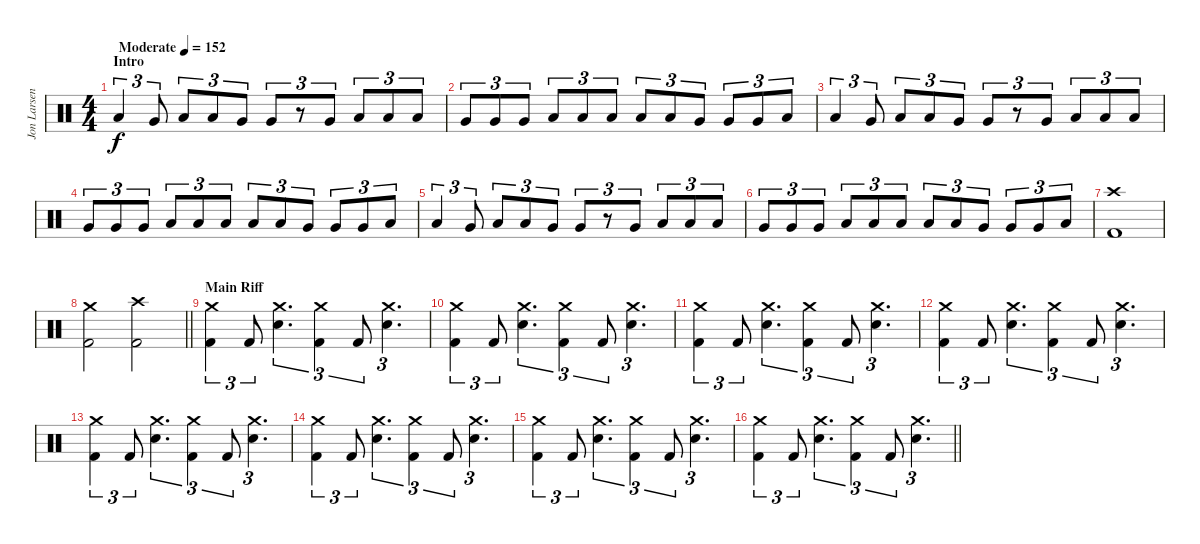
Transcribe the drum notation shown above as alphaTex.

\track ("Jon Larsen" "Jon Larsen") {instrument percussion}
\staff {score}
\articulation defaults
\ts (4 4)
\section ("" "Intro")
\tempo (152 "Moderate")
\clef neutral
\ks c "Low Tom (hit)".4{tu (3 2) dy f} "Very Low Tom (hit)".8{tu (3 2)} "Low Tom (hit)".8{tu (3 2)} "Low Tom (hit)".8{tu (3 2)} "Very Low Tom (hit)".8{tu (3 2)} "Very Low Tom (hit)".8{tu (3 2)}
r.8{tu (3 2)} "Very Low Tom (hit)".8{tu (3 2)} "Low Floor Tom (hit)".8{tu (3 2)} "Low Floor Tom (hit)".8{tu (3 2)} "Low Floor Tom (hit)".8{tu (3 2)} |
"Very Low Tom (hit)".8{tu (3 2)} "Very Low Tom (hit)".8{tu (3 2)} "Very Low Tom (hit)".8{tu (3 2)} "Low Floor Tom (hit)".8{tu (3 2)} "Low Floor Tom (hit)".8{tu (3 2)} "Low Floor Tom (hit)".8{tu (3 2)} "Low Tom (hit)".8{tu (3 2)} "Low Tom (hit)".8{tu (3 2)} "Very Low Tom (hit)".8{tu (3 2)} "Very Low Tom (hit)".8{tu (3 2)} "Very Low Tom (hit)".8{tu (3 2)} "Low Tom (hit)".8{tu (3 2)} |
"Low Tom (hit)".4{tu (3 2)} "Very Low Tom (hit)".8{tu (3 2)} "Low Tom (hit)".8{tu (3 2)} "Low Tom (hit)".8{tu (3 2)} "Very Low Tom (hit)".8{tu (3 2)} "Very Low Tom (hit)".8{tu (3 2)} r.8{tu (3 2)} "Very Low Tom (hit)".8{tu (3 2)} "Low Floor Tom (hit)".8{tu (3 2)} "Low Floor Tom (hit)".8{tu (3 2)} "Low Floor Tom (hit)".8{tu (3 2)} |
"Very Low Tom (hit)".8{tu (3 2)} "Very Low Tom (hit)".8{tu (3 2)} "Very Low Tom (hit)".8{tu (3 2)} "Low Floor Tom (hit)".8{tu (3 2)} "Low Floor Tom (hit)".8{tu (3 2)} "Low Floor Tom (hit)".8{tu (3 2)} "Low Tom (hit)".8{tu (3 2)} "Low Tom (hit)".8{tu (3 2)} "Very Low Tom (hit)".8{tu (3 2)} "Very Low Tom (hit)".8{tu (3 2)} "Very Low Tom (hit)".8{tu (3 2)} "Low Tom (hit)".8{tu (3 2)} |
"Low Tom (hit)".4{tu (3 2)} "Very Low Tom (hit)".8{tu (3 2)} "Low Tom (hit)".8{tu (3 2)} "Low Tom (hit)".8{tu (3 2)} "Very Low Tom (hit)".8{tu (3 2)} "Very Low Tom (hit)".8{tu (3 2)} r.8{tu (3 2)} "Very Low Tom (hit)".8{tu (3 2)} "Low Floor Tom (hit)".8{tu (3 2)} "Low Floor Tom (hit)".8{tu (3 2)} "Low Floor Tom (hit)".8{tu (3 2)} |
"Very Low Tom (hit)".8{tu (3 2)} "Very Low Tom (hit)".8{tu (3 2)} "Very Low Tom (hit)".8{tu (3 2)} "Low Floor Tom (hit)".8{tu (3 2)} "Low Floor Tom (hit)".8{tu (3 2)} "Low Floor Tom (hit)".8{tu (3 2)} "Low Tom (hit)".8{tu (3 2)} "Low Tom (hit)".8{tu (3 2)} "Very Low Tom (hit)".8{tu (3 2)} "Very Low Tom (hit)".8{tu (3 2)} "Very Low Tom (hit)".8{tu (3 2)} "Low Tom (hit)".8{tu (3 2)} |
("Kick (hit) 2" "Crash high (hit)").1 |
\barLineRight lightlight
("Kick (hit) 2" "Crash medium (hit)").2 ("Kick (hit) 2" "Crash high (hit)").2 |
\section ("" "Main Riff")
("Kick (hit) 2" "Crash medium (hit)").4{tu (3 2)} "Kick (hit) 2".8{tu (3 2)} ("Electric Snare (hit)" "Crash medium (hit)").4{d tu (3 2)} ("Kick (hit) 2" "Crash medium (hit)").4{tu (3 2)} "Kick (hit) 2".8{tu (3 2)} ("Electric Snare (hit)" "Crash medium (hit)").4{d tu (3 2)} |
("Kick (hit) 2" "Crash medium (hit)").4{tu (3 2)} "Kick (hit) 2".8{tu (3 2)} ("Electric Snare (hit)" "Crash medium (hit)").4{d tu (3 2)} ("Kick (hit) 2" "Crash medium (hit)").4{tu (3 2)} "Kick (hit) 2".8{tu (3 2)} ("Electric Snare (hit)" "Crash medium (hit)").4{d tu (3 2)} |
("Kick (hit) 2" "Crash medium (hit)").4{tu (3 2)} "Kick (hit) 2".8{tu (3 2)} ("Electric Snare (hit)" "Crash medium (hit)").4{d tu (3 2)} ("Kick (hit) 2" "Crash medium (hit)").4{tu (3 2)} "Kick (hit) 2".8{tu (3 2)} ("Electric Snare (hit)" "Crash medium (hit)").4{d tu (3 2)} |
("Kick (hit) 2" "Crash medium (hit)").4{tu (3 2)} "Kick (hit) 2".8{tu (3 2)} ("Electric Snare (hit)" "Crash medium (hit)").4{d tu (3 2)} ("Kick (hit) 2" "Crash medium (hit)").4{tu (3 2)} "Kick (hit) 2".8{tu (3 2)} ("Electric Snare (hit)" "Crash medium (hit)").4{d tu (3 2)} |
("Kick (hit) 2" "Crash medium (hit)").4{tu (3 2)} "Kick (hit) 2".8{tu (3 2)} ("Electric Snare (hit)" "Crash medium (hit)").4{d tu (3 2)} ("Kick (hit) 2" "Crash medium (hit)").4{tu (3 2)} "Kick (hit) 2".8{tu (3 2)} ("Electric Snare (hit)" "Crash medium (hit)").4{d tu (3 2)} |
("Kick (hit) 2" "Crash medium (hit)").4{tu (3 2)} "Kick (hit) 2".8{tu (3 2)} ("Electric Snare (hit)" "Crash medium (hit)").4{d tu (3 2)} ("Kick (hit) 2" "Crash medium (hit)").4{tu (3 2)} "Kick (hit) 2".8{tu (3 2)} ("Electric Snare (hit)" "Crash medium (hit)").4{d tu (3 2)} |
("Kick (hit) 2" "Crash medium (hit)").4{tu (3 2)} "Kick (hit) 2".8{tu (3 2)} ("Electric Snare (hit)" "Crash medium (hit)").4{d tu (3 2)} ("Kick (hit) 2" "Crash medium (hit)").4{tu (3 2)} "Kick (hit) 2".8{tu (3 2)} ("Electric Snare (hit)" "Crash medium (hit)").4{d tu (3 2)} |
\barLineRight lightlight
("Kick (hit) 2" "Crash medium (hit)").4{tu (3 2)} "Kick (hit) 2".8{tu (3 2)} ("Electric Snare (hit)" "Crash medium (hit)").4{d tu (3 2)} ("Kick (hit) 2" "Crash medium (hit)").4{tu (3 2)} "Kick (hit) 2".8{tu (3 2)} ("Electric Snare (hit)" "Crash medium (hit)").4{d tu (3 2)}
